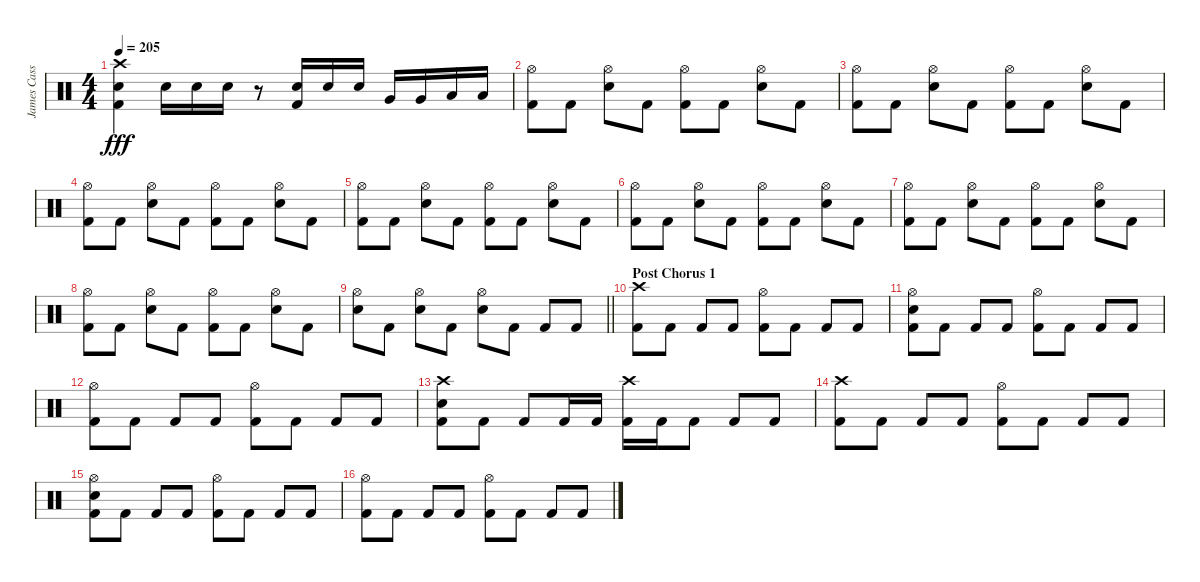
\track ("James Cassels" "James Cass") {instrument percussion}
\staff {score}
\articulation defaults
\ts (4 4)
\tempo 205
\clef neutral
\ks c
("Crash high (hit)" "Electric Snare (hit)" "Kick (hit) 2").4{dy fff} "Electric Snare (hit)".16 "Electric Snare (hit)".16 "Electric Snare (hit)".16 r.8 ("Electric Snare (hit)" "Kick (hit) 2").16 "Electric Snare (hit)".16 "Electric Snare (hit)".16 "Very Low Tom (hit)".16 "Very Low Tom (hit)".16 "Low Floor Tom (hit)".16 "Low Floor Tom (hit)".16 |
("Hi-Hat (open)" "Kick (hit) 2").8 "Kick (hit) 2".8 ("Hi-Hat (open)" "Electric Snare (hit)").8 "Kick (hit) 2".8 ("Hi-Hat (open)" "Kick (hit) 2").8 "Kick (hit) 2".8 ("Hi-Hat (open)" "Electric Snare (hit)").8 "Kick (hit) 2".8 |
("Hi-Hat (open)" "Kick (hit) 2").8 "Kick (hit) 2".8 ("Hi-Hat (open)" "Electric Snare (hit)").8 "Kick (hit) 2".8 ("Hi-Hat (open)" "Kick (hit) 2").8 "Kick (hit) 2".8 ("Hi-Hat (open)" "Electric Snare (hit)").8 "Kick (hit) 2".8 |
("Hi-Hat (open)" "Kick (hit) 2").8 "Kick (hit) 2".8 ("Hi-Hat (open)" "Electric Snare (hit)").8 "Kick (hit) 2".8 ("Hi-Hat (open)" "Kick (hit) 2").8 "Kick (hit) 2".8 ("Hi-Hat (open)" "Electric Snare (hit)").8 "Kick (hit) 2".8 |
("Hi-Hat (open)" "Kick (hit) 2").8 "Kick (hit) 2".8 ("Hi-Hat (open)" "Electric Snare (hit)").8 "Kick (hit) 2".8 ("Hi-Hat (open)" "Kick (hit) 2").8 "Kick (hit) 2".8 ("Hi-Hat (open)" "Electric Snare (hit)").8 "Kick (hit) 2".8 |
("Hi-Hat (open)" "Kick (hit) 2").8 "Kick (hit) 2".8 ("Hi-Hat (open)" "Electric Snare (hit)").8 "Kick (hit) 2".8 ("Hi-Hat (open)" "Kick (hit) 2").8 "Kick (hit) 2".8 ("Hi-Hat (open)" "Electric Snare (hit)").8 "Kick (hit) 2".8 |
("Hi-Hat (open)" "Kick (hit) 2").8 "Kick (hit) 2".8 ("Hi-Hat (open)" "Electric Snare (hit)").8 "Kick (hit) 2".8 ("Hi-Hat (open)" "Kick (hit) 2").8 "Kick (hit) 2".8 ("Hi-Hat (open)" "Electric Snare (hit)").8 "Kick (hit) 2".8 |
("Hi-Hat (open)" "Kick (hit) 2").8 "Kick (hit) 2".8 ("Hi-Hat (open)" "Electric Snare (hit)").8 "Kick (hit) 2".8 ("Hi-Hat (open)" "Kick (hit) 2").8 "Kick (hit) 2".8 ("Hi-Hat (open)" "Electric Snare (hit)").8 "Kick (hit) 2".8 |
\barLineRight lightlight
("Hi-Hat (open)" "Electric Snare (hit)").8 "Kick (hit) 2".8 ("Hi-Hat (open)" "Electric Snare (hit)").8 "Kick (hit) 2".8 ("Hi-Hat (open)" "Electric Snare (hit)").8 "Kick (hit) 2".8 "Kick (hit) 2".8 "Kick (hit) 2".8 |
\section ("" "Post Chorus 1")
("Crash high (hit)" "Kick (hit) 2").8 "Kick (hit) 2".8 "Kick (hit) 2".8 "Kick (hit) 2".8 ("Hi-Hat (open)" "Kick (hit) 2").8 "Kick (hit) 2".8 "Kick (hit) 2".8 "Kick (hit) 2".8 |
("Hi-Hat (open)" "Electric Snare (hit)" "Kick (hit) 2").8 "Kick (hit) 2".8 "Kick (hit) 2".8 "Kick (hit) 2".8 ("Hi-Hat (open)" "Kick (hit) 2").8 "Kick (hit) 2".8 "Kick (hit) 2".8 "Kick (hit) 2".8 |
("Hi-Hat (open)" "Kick (hit) 2").8 "Kick (hit) 2".8 "Kick (hit) 2".8 "Kick (hit) 2".8 ("Hi-Hat (open)" "Kick (hit) 2").8 "Kick (hit) 2".8 "Kick (hit) 2".8 "Kick (hit) 2".8 |
("Crash high (hit)" "Electric Snare (hit)" "Kick (hit) 2").8 "Kick (hit) 2".8 "Kick (hit) 2".8 "Kick (hit) 2".16 "Kick (hit) 2".16 ("Crash high (hit)" "Kick (hit) 2").16 "Kick (hit) 2".16 "Kick (hit) 2".8 "Kick (hit) 2".8 "Kick (hit) 2".8 |
("Crash high (hit)" "Kick (hit) 2").8 "Kick (hit) 2".8 "Kick (hit) 2".8 "Kick (hit) 2".8 ("Hi-Hat (open)" "Kick (hit) 2").8 "Kick (hit) 2".8 "Kick (hit) 2".8 "Kick (hit) 2".8 |
("Hi-Hat (open)" "Electric Snare (hit)" "Kick (hit) 2").8 "Kick (hit) 2".8 "Kick (hit) 2".8 "Kick (hit) 2".8 ("Hi-Hat (open)" "Kick (hit) 2").8 "Kick (hit) 2".8 "Kick (hit) 2".8 "Kick (hit) 2".8 |
("Hi-Hat (open)" "Kick (hit) 2").8 "Kick (hit) 2".8 "Kick (hit) 2".8 "Kick (hit) 2".8 ("Hi-Hat (open)" "Kick (hit) 2").8 "Kick (hit) 2".8 "Kick (hit) 2".8 "Kick (hit) 2".8
